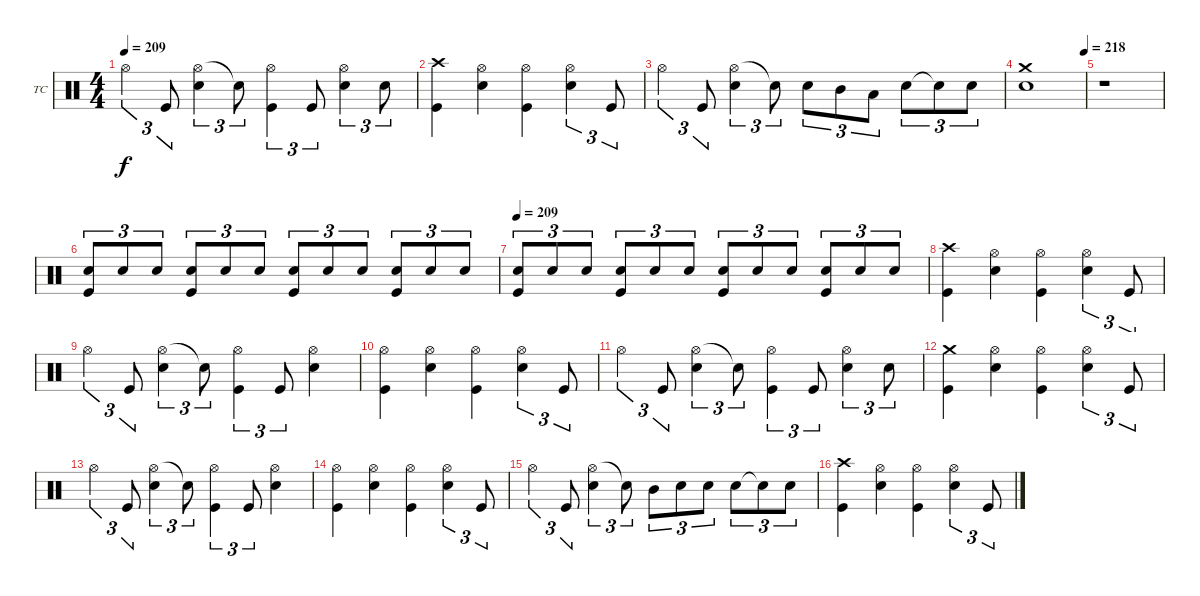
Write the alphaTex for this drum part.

\defaultSystemsLayout 4
\bracketExtendMode groupsimilarinstruments
\firstSystemTrackNameOrientation horizontal
\otherSystemsTrackNameOrientation horizontal
\track ("Drums - Tre Cool" "TC") {instrument percussion}
\staff {score}
\articulation defaults
\ts (4 4)
\tempo 209
\clef neutral
\ks c "Hi-Hat (open)".4{tu (3 2) dy f} "Kick (hit)".8{tu (3 2)}
("Hi-Hat (open)" "Snare (hit) 2").4{tu (3 2)} "Snare (hit) 2"{t}.8{tu (3 2)} ("Hi-Hat (open)" "Kick (hit)").4{tu (3 2)} "Kick (hit)".8{tu (3 2)} ("Hi-Hat (open)" "Snare (hit) 2").4{tu (3 2)} "Snare (hit) 2".8{tu (3 2)} |
("Crash high (hit)" "Kick (hit)").4 ("Hi-Hat (open)" "Snare (hit) 2").4 ("Hi-Hat (open)" "Kick (hit)").4 ("Hi-Hat (open)" "Snare (hit) 2").4{tu (3 2)} "Kick (hit)".8{tu (3 2)} |
"Hi-Hat (open)".4{tu (3 2)} "Kick (hit)".8{tu (3 2)} ("Hi-Hat (open)" "Snare (hit) 2").4{tu (3 2)} "Snare (hit) 2"{t}.8{tu (3 2)} "Snare (hit) 2".8{tu (3 2)} "Mid Tom (hit)".8{tu (3 2)} "Low Tom (hit)".8{tu (3 2)} "Snare (hit) 2".8{tu (3 2)} "Snare (hit) 2"{t}.8{tu (3 2)} "Snare (hit) 2".8{tu (3 2)} |
\tempo (218 0.99375)
("Crash medium (hit)" "Snare (hit) 2").1 |
r.1 |
("Snare (hit) 2" "Kick (hit)").8{tu (3 2)} "Snare (hit) 2".8{tu (3 2)} "Snare (hit) 2".8{tu (3 2)} ("Snare (hit) 2" "Kick (hit)").8{tu (3 2)} "Snare (hit) 2".8{tu (3 2)} "Snare (hit) 2".8{tu (3 2)} ("Snare (hit) 2" "Kick (hit)").8{tu (3 2)} "Snare (hit) 2".8{tu (3 2)} "Snare (hit) 2".8{tu (3 2)} ("Snare (hit) 2" "Kick (hit)").8{tu (3 2)} "Snare (hit) 2".8{tu (3 2)} "Snare (hit) 2".8{tu (3 2)} |
\tempo 209
("Snare (hit) 2" "Kick (hit)").8{tu (3 2)} "Snare (hit) 2".8{tu (3 2)} "Snare (hit) 2".8{tu (3 2)} ("Snare (hit) 2" "Kick (hit)").8{tu (3 2)} "Snare (hit) 2".8{tu (3 2)} "Snare (hit) 2".8{tu (3 2)} ("Snare (hit) 2" "Kick (hit)").8{tu (3 2)} "Snare (hit) 2".8{tu (3 2)} "Snare (hit) 2".8{tu (3 2)} ("Snare (hit) 2" "Kick (hit)").8{tu (3 2)} "Snare (hit) 2".8{tu (3 2)} "Snare (hit) 2".8{tu (3 2)} |
("Crash high (hit)" "Kick (hit)").4 ("Hi-Hat (open)" "Snare (hit) 2").4 ("Hi-Hat (open)" "Kick (hit)").4 ("Hi-Hat (open)" "Snare (hit) 2").4{tu (3 2)} "Kick (hit)".8{tu (3 2)} |
"Hi-Hat (open)".4{tu (3 2)} "Kick (hit)".8{tu (3 2)} ("Hi-Hat (open)" "Snare (hit) 2").4{tu (3 2)} "Snare (hit) 2"{t}.8{tu (3 2)} ("Hi-Hat (open)" "Kick (hit)").4{tu (3 2)} "Kick (hit)".8{tu (3 2)} ("Hi-Hat (open)" "Snare (hit) 2").4 |
("Hi-Hat (open)" "Kick (hit)").4 ("Hi-Hat (open)" "Snare (hit) 2").4 ("Hi-Hat (open)" "Kick (hit)").4 ("Hi-Hat (open)" "Snare (hit) 2").4{tu (3 2)} "Kick (hit)".8{tu (3 2)} |
"Hi-Hat (open)".4{tu (3 2)} "Kick (hit)".8{tu (3 2)} ("Hi-Hat (open)" "Snare (hit) 2").4{tu (3 2)} "Snare (hit) 2"{t}.8{tu (3 2)} ("Hi-Hat (open)" "Kick (hit)").4{tu (3 2)} "Kick (hit)".8{tu (3 2)} ("Hi-Hat (open)" "Snare (hit) 2").4{tu (3 2)} "Snare (hit) 2".8{tu (3 2)} |
("Crash medium (hit)" "Kick (hit)").4 ("Hi-Hat (open)" "Snare (hit) 2").4 ("Hi-Hat (open)" "Kick (hit)").4 ("Hi-Hat (open)" "Snare (hit) 2").4{tu (3 2)} "Kick (hit)".8{tu (3 2)} |
"Hi-Hat (open)".4{tu (3 2)} "Kick (hit)".8{tu (3 2)} ("Hi-Hat (open)" "Snare (hit) 2").4{tu (3 2)} "Snare (hit) 2"{t}.8{tu (3 2)} ("Hi-Hat (open)" "Kick (hit)").4{tu (3 2)} "Kick (hit)".8{tu (3 2)} ("Hi-Hat (open)" "Snare (hit) 2").4 |
("Hi-Hat (open)" "Kick (hit)").4 ("Hi-Hat (open)" "Snare (hit) 2").4 ("Hi-Hat (open)" "Kick (hit)").4 ("Hi-Hat (open)" "Snare (hit) 2").4{tu (3 2)} "Kick (hit)".8{tu (3 2)} |
"Hi-Hat (open)".4{tu (3 2)} "Kick (hit)".8{tu (3 2)} ("Hi-Hat (open)" "Snare (hit) 2").4{tu (3 2)} "Snare (hit) 2"{t}.8{tu (3 2)} "Mid Tom (hit)".8{tu (3 2)} "Snare (hit) 2".8{tu (3 2)} "Snare (hit) 2".8{tu (3 2)} "Snare (hit) 2".8{tu (3 2)} "Snare (hit) 2"{t}.8{tu (3 2)} "Snare (hit) 2".8{tu (3 2)} |
("Crash high (hit)" "Kick (hit)").4 ("Hi-Hat (open)" "Snare (hit) 2").4 ("Hi-Hat (open)" "Kick (hit)").4 ("Hi-Hat (open)" "Snare (hit) 2").4{tu (3 2)} "Kick (hit)".8{tu (3 2)}
